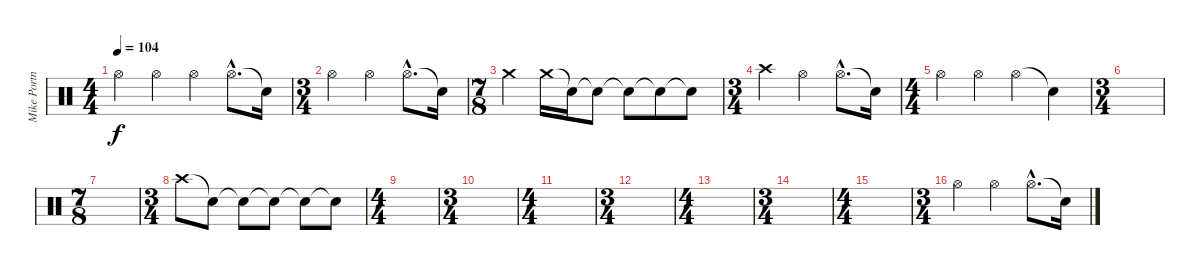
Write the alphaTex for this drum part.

\track ("Mike Portnoy" "Mike Portn") {instrument percussion}
\staff {score}
\articulation defaults
\ts (4 4)
\tempo 104
\clef neutral
\ks c "Hi-Hat (open)".4{dy f} "Hi-Hat (open)".4 "Hi-Hat (open)".4 "Hi-Hat (open)"{hac}.8{d} "Snare (hit)"{t}.16
|
\ts (3 4)
"Hi-Hat (open)".4 "Hi-Hat (open)".4 "Hi-Hat (open)"{hac}.8{d} "Snare (hit)"{t}.16 |
\ts (7 8)
"Crash medium (hit)".4 "Crash medium (hit)".16 "Snare (hit)"{t}.16 "Snare (hit)"{t}.8 "Snare (hit)"{t}.8 "Snare (hit)"{t}.8 "Snare (hit)"{t}.8 |
\ts (3 4)
"Crash high (hit)".4 "Hi-Hat (open)".4 "Hi-Hat (open)"{hac}.8{d} "Snare (hit)"{t}.16 |
\ts (4 4)
"Hi-Hat (open)".4 "Hi-Hat (open)".4 "Hi-Hat (open)".4 "Snare (hit)"{t}.4 |
\ts (3 4)
|
\ts (7 8)
|
\ts (3 4)
"Crash high (hit)".8 "Snare (hit)"{t}.8 "Snare (hit)"{t}.8 "Snare (hit)"{t}.8 "Snare (hit)"{t}.8 "Snare (hit)"{t}.8 |
\ts (4 4)
|
\ts (3 4)
|
\ts (4 4)
|
\ts (3 4)
|
\ts (4 4)
|
\ts (3 4)
|
\ts (4 4)
|
\ts (3 4)
"Hi-Hat (open)".4 "Hi-Hat (open)".4 "Hi-Hat (open)"{hac}.8{d} "Snare (hit)"{t}.16
